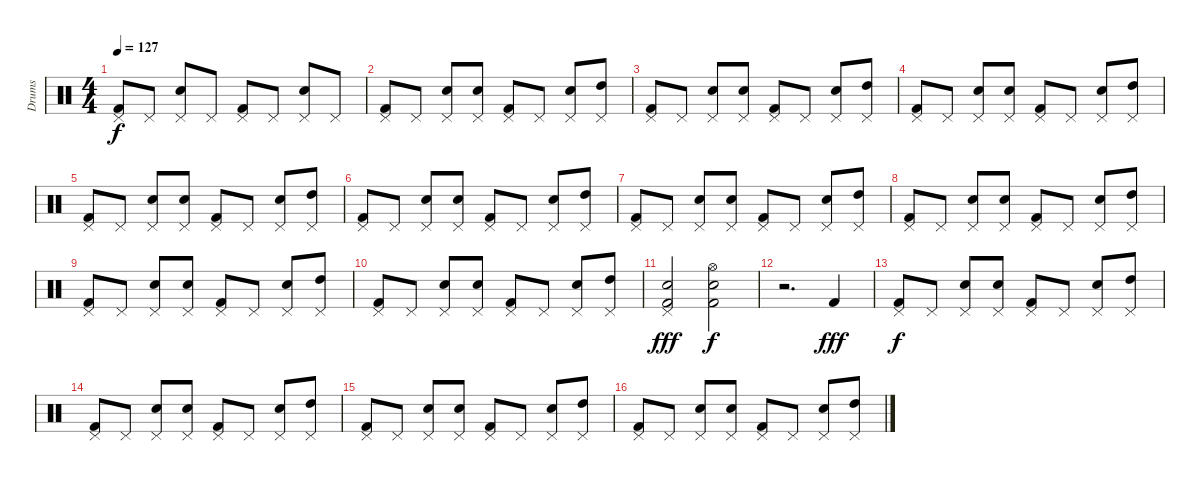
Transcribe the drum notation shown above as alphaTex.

\track ("Drums" "Drums") {instrument percussion}
\staff {score}
\articulation defaults
\ts (4 4)
\tempo 127
\clef neutral
\ks c
("Pedal Hi-Hat (hit)" "Kick (hit) 2").8{dy f} "Pedal Hi-Hat (hit)".8 ("Pedal Hi-Hat (hit)" "Snare (hit) 2").8 "Pedal Hi-Hat (hit)".8 ("Pedal Hi-Hat (hit)" "Kick (hit) 2").8 "Pedal Hi-Hat (hit)".8 ("Pedal Hi-Hat (hit)" "Snare (hit) 2").8 "Pedal Hi-Hat (hit)".8 |
("Pedal Hi-Hat (hit)" "Kick (hit) 2").8 "Pedal Hi-Hat (hit)".8 ("Pedal Hi-Hat (hit)" "Snare (hit) 2").8 ("Pedal Hi-Hat (hit)" "Snare (hit) 2").8 ("Pedal Hi-Hat (hit)" "Kick (hit) 2").8 "Pedal Hi-Hat (hit)".8 ("Pedal Hi-Hat (hit)" "Snare (hit) 2").8 ("Pedal Hi-Hat (hit)" "High Tom (hit)").8 |
("Pedal Hi-Hat (hit)" "Kick (hit) 2").8 "Pedal Hi-Hat (hit)".8 ("Pedal Hi-Hat (hit)" "Snare (hit) 2").8 ("Pedal Hi-Hat (hit)" "Snare (hit) 2").8 ("Pedal Hi-Hat (hit)" "Kick (hit) 2").8 "Pedal Hi-Hat (hit)".8 ("Pedal Hi-Hat (hit)" "Snare (hit) 2").8 ("Pedal Hi-Hat (hit)" "High Tom (hit)").8 |
("Pedal Hi-Hat (hit)" "Kick (hit) 2").8 "Pedal Hi-Hat (hit)".8 ("Pedal Hi-Hat (hit)" "Snare (hit) 2").8 ("Pedal Hi-Hat (hit)" "Snare (hit) 2").8 ("Pedal Hi-Hat (hit)" "Kick (hit) 2").8 "Pedal Hi-Hat (hit)".8 ("Pedal Hi-Hat (hit)" "Snare (hit) 2").8 ("Pedal Hi-Hat (hit)" "High Tom (hit)").8 |
("Pedal Hi-Hat (hit)" "Kick (hit) 2").8 "Pedal Hi-Hat (hit)".8 ("Pedal Hi-Hat (hit)" "Snare (hit) 2").8 ("Pedal Hi-Hat (hit)" "Snare (hit) 2").8 ("Pedal Hi-Hat (hit)" "Kick (hit) 2").8 "Pedal Hi-Hat (hit)".8 ("Pedal Hi-Hat (hit)" "Snare (hit) 2").8 ("Pedal Hi-Hat (hit)" "High Tom (hit)").8 |
("Pedal Hi-Hat (hit)" "Kick (hit) 2").8 "Pedal Hi-Hat (hit)".8 ("Pedal Hi-Hat (hit)" "Snare (hit) 2").8 ("Pedal Hi-Hat (hit)" "Snare (hit) 2").8 ("Pedal Hi-Hat (hit)" "Kick (hit) 2").8 "Pedal Hi-Hat (hit)".8 ("Pedal Hi-Hat (hit)" "Snare (hit) 2").8 ("Pedal Hi-Hat (hit)" "High Tom (hit)").8 |
("Pedal Hi-Hat (hit)" "Kick (hit) 2").8 "Pedal Hi-Hat (hit)".8 ("Pedal Hi-Hat (hit)" "Snare (hit) 2").8 ("Pedal Hi-Hat (hit)" "Snare (hit) 2").8 ("Pedal Hi-Hat (hit)" "Kick (hit) 2").8 "Pedal Hi-Hat (hit)".8 ("Pedal Hi-Hat (hit)" "Snare (hit) 2").8 ("Pedal Hi-Hat (hit)" "High Tom (hit)").8 |
("Pedal Hi-Hat (hit)" "Kick (hit) 2").8 "Pedal Hi-Hat (hit)".8 ("Pedal Hi-Hat (hit)" "Snare (hit) 2").8 ("Pedal Hi-Hat (hit)" "Snare (hit) 2").8 ("Pedal Hi-Hat (hit)" "Kick (hit) 2").8 "Pedal Hi-Hat (hit)".8 ("Pedal Hi-Hat (hit)" "Snare (hit) 2").8 ("Pedal Hi-Hat (hit)" "High Tom (hit)").8 |
("Pedal Hi-Hat (hit)" "Kick (hit) 2").8 "Pedal Hi-Hat (hit)".8 ("Pedal Hi-Hat (hit)" "Snare (hit) 2").8 ("Pedal Hi-Hat (hit)" "Snare (hit) 2").8 ("Pedal Hi-Hat (hit)" "Kick (hit) 2").8 "Pedal Hi-Hat (hit)".8 ("Pedal Hi-Hat (hit)" "Snare (hit) 2").8 ("Pedal Hi-Hat (hit)" "High Tom (hit)").8 |
("Pedal Hi-Hat (hit)" "Kick (hit) 2").8 "Pedal Hi-Hat (hit)".8 ("Pedal Hi-Hat (hit)" "Snare (hit) 2").8 ("Pedal Hi-Hat (hit)" "Snare (hit) 2").8 ("Pedal Hi-Hat (hit)" "Kick (hit) 2").8 "Pedal Hi-Hat (hit)".8 ("Pedal Hi-Hat (hit)" "Snare (hit) 2").8 ("Pedal Hi-Hat (hit)" "High Tom (hit)").8 |
("Pedal Hi-Hat (hit)" "Snare (hit) 2" "Kick (hit) 2").2{dy fff} ("Hi-Hat (open)" "Snare (hit) 2" "Kick (hit) 2").2{dy f} |
r.2{d} "Kick (hit) 2".4{dy fff} |
("Pedal Hi-Hat (hit)" "Kick (hit) 2").8{dy f} "Pedal Hi-Hat (hit)".8 ("Pedal Hi-Hat (hit)" "Snare (hit) 2").8 ("Pedal Hi-Hat (hit)" "Snare (hit) 2").8 ("Pedal Hi-Hat (hit)" "Kick (hit) 2").8 "Pedal Hi-Hat (hit)".8 ("Pedal Hi-Hat (hit)" "Snare (hit) 2").8 ("Pedal Hi-Hat (hit)" "High Tom (hit)").8 |
("Pedal Hi-Hat (hit)" "Kick (hit) 2").8 "Pedal Hi-Hat (hit)".8 ("Pedal Hi-Hat (hit)" "Snare (hit) 2").8 ("Pedal Hi-Hat (hit)" "Snare (hit) 2").8 ("Pedal Hi-Hat (hit)" "Kick (hit) 2").8 "Pedal Hi-Hat (hit)".8 ("Pedal Hi-Hat (hit)" "Snare (hit) 2").8 ("Pedal Hi-Hat (hit)" "High Tom (hit)").8 |
("Pedal Hi-Hat (hit)" "Kick (hit) 2").8 "Pedal Hi-Hat (hit)".8 ("Pedal Hi-Hat (hit)" "Snare (hit) 2").8 ("Pedal Hi-Hat (hit)" "Snare (hit) 2").8 ("Pedal Hi-Hat (hit)" "Kick (hit) 2").8 "Pedal Hi-Hat (hit)".8 ("Pedal Hi-Hat (hit)" "Snare (hit) 2").8 ("Pedal Hi-Hat (hit)" "High Tom (hit)").8 |
("Pedal Hi-Hat (hit)" "Kick (hit) 2").8 "Pedal Hi-Hat (hit)".8 ("Pedal Hi-Hat (hit)" "Snare (hit) 2").8 ("Pedal Hi-Hat (hit)" "Snare (hit) 2").8 ("Pedal Hi-Hat (hit)" "Kick (hit) 2").8 "Pedal Hi-Hat (hit)".8 ("Pedal Hi-Hat (hit)" "Snare (hit) 2").8 ("Pedal Hi-Hat (hit)" "High Tom (hit)").8
